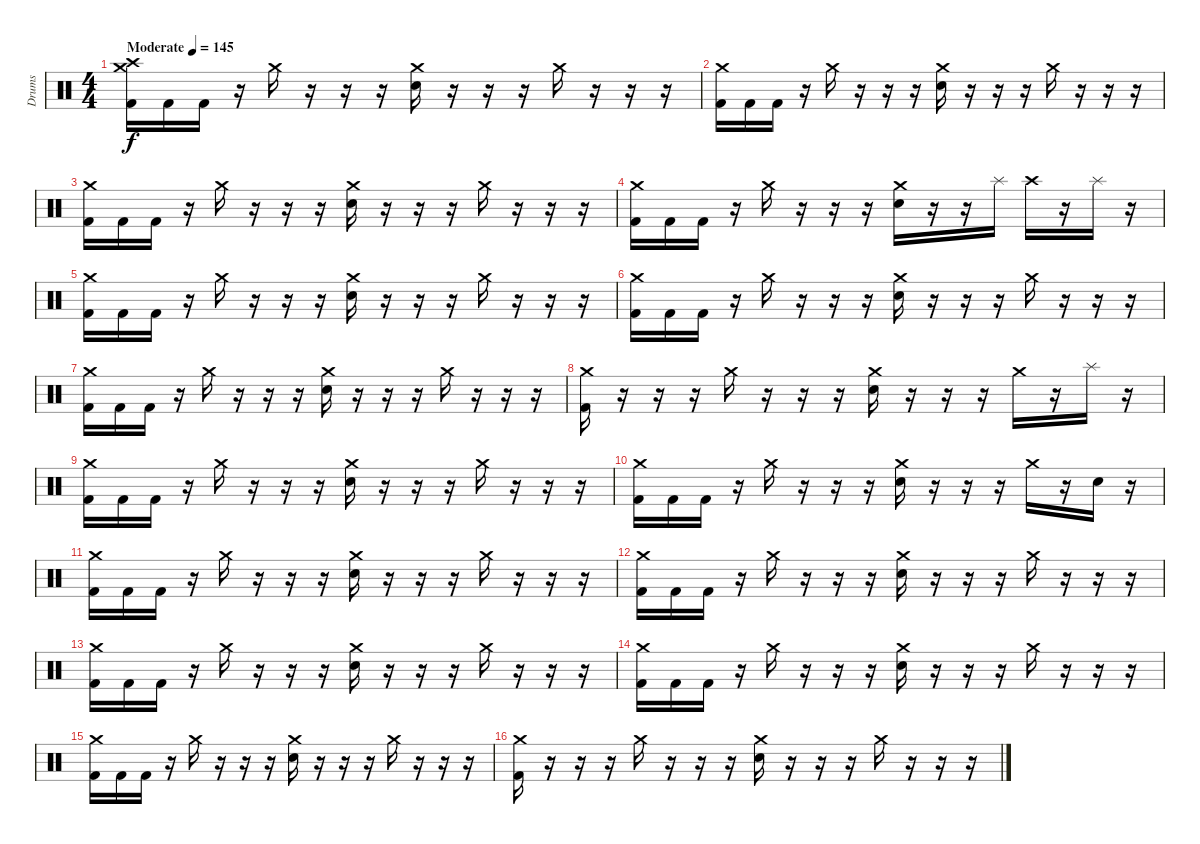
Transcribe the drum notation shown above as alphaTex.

\track ("Drums" "Drums") {instrument percussion}
\staff {score}
\articulation defaults
\ts (4 4)
\tempo (145 "Moderate")
\clef neutral
\ks c
("Crash medium (hit)" "Crash high (hit)" "Kick (hit) 2").16{dy f} "Kick (hit) 2".16 "Kick (hit) 2".16 r.16 "Crash medium (hit)".16 r.16 r.16 r.16 ("Crash medium (hit)" "Electric Snare (hit)").16 r.16 r.16 r.16 "Crash medium (hit)".16 r.16 r.16 r.16 |
("Crash medium (hit)" "Kick (hit) 2").16 "Kick (hit) 2".16 "Kick (hit) 2".16 r.16 "Crash medium (hit)".16 r.16 r.16 r.16 ("Crash medium (hit)" "Electric Snare (hit)").16 r.16 r.16 r.16 "Crash medium (hit)".16 r.16 r.16 r.16 |
("Crash medium (hit)" "Kick (hit) 2").16 "Kick (hit) 2".16 "Kick (hit) 2".16 r.16 "Crash medium (hit)".16 r.16 r.16 r.16 ("Crash medium (hit)" "Electric Snare (hit)").16 r.16 r.16 r.16 "Crash medium (hit)".16 r.16 r.16 r.16 |
("Crash medium (hit)" "Kick (hit) 2").16 "Kick (hit) 2".16 "Kick (hit) 2".16 r.16 "Crash medium (hit)".16 r.16 r.16 r.16 ("Crash medium (hit)" "Electric Snare (hit)").16 r.16 r.16 "Splash (hit)".16 "Crash high (hit)".16 r.16 "Splash (hit)".16 r.16 |
("Crash medium (hit)" "Kick (hit) 2").16 "Kick (hit) 2".16 "Kick (hit) 2".16 r.16 "Crash medium (hit)".16 r.16 r.16 r.16 ("Crash medium (hit)" "Electric Snare (hit)").16 r.16 r.16 r.16 "Crash medium (hit)".16 r.16 r.16 r.16 |
("Crash medium (hit)" "Kick (hit) 2").16 "Kick (hit) 2".16 "Kick (hit) 2".16 r.16 "Crash medium (hit)".16 r.16 r.16 r.16 ("Crash medium (hit)" "Electric Snare (hit)").16 r.16 r.16 r.16 "Crash medium (hit)".16 r.16 r.16 r.16 |
("Crash medium (hit)" "Kick (hit) 2").16 "Kick (hit) 2".16 "Kick (hit) 2".16 r.16 "Crash medium (hit)".16 r.16 r.16 r.16 ("Crash medium (hit)" "Electric Snare (hit)").16 r.16 r.16 r.16 "Crash medium (hit)".16 r.16 r.16 r.16 |
("Crash medium (hit)" "Kick (hit) 2").16 r.16 r.16 r.16 "Crash medium (hit)".16 r.16 r.16 r.16 ("Crash medium (hit)" "Electric Snare (hit)").16 r.16 r.16 r.16 "Crash medium (hit)".16 r.16 "Splash (hit)".16 r.16 |
("Crash medium (hit)" "Kick (hit) 2").16 "Kick (hit) 2".16 "Kick (hit) 2".16 r.16 "Crash medium (hit)".16 r.16 r.16 r.16 ("Crash medium (hit)" "Electric Snare (hit)").16 r.16 r.16 r.16 "Crash medium (hit)".16 r.16 r.16 r.16 |
("Crash medium (hit)" "Kick (hit) 2").16 "Kick (hit) 2".16 "Kick (hit) 2".16 r.16 "Crash medium (hit)".16 r.16 r.16 r.16 ("Crash medium (hit)" "Electric Snare (hit)").16 r.16 r.16 r.16 "Crash medium (hit)".16 r.16 "Electric Snare (hit)".16 r.16 |
("Crash medium (hit)" "Kick (hit) 2").16 "Kick (hit) 2".16 "Kick (hit) 2".16 r.16 "Crash medium (hit)".16 r.16 r.16 r.16 ("Crash medium (hit)" "Electric Snare (hit)").16 r.16 r.16 r.16 "Crash medium (hit)".16 r.16 r.16 r.16 |
("Crash medium (hit)" "Kick (hit) 2").16 "Kick (hit) 2".16 "Kick (hit) 2".16 r.16 "Crash medium (hit)".16 r.16 r.16 r.16 ("Crash medium (hit)" "Electric Snare (hit)").16 r.16 r.16 r.16 "Crash medium (hit)".16 r.16 r.16 r.16 |
("Crash medium (hit)" "Kick (hit) 2").16 "Kick (hit) 2".16 "Kick (hit) 2".16 r.16 "Crash medium (hit)".16 r.16 r.16 r.16 ("Crash medium (hit)" "Electric Snare (hit)").16 r.16 r.16 r.16 "Crash medium (hit)".16 r.16 r.16 r.16 |
("Crash medium (hit)" "Kick (hit) 2").16 "Kick (hit) 2".16 "Kick (hit) 2".16 r.16 "Crash medium (hit)".16 r.16 r.16 r.16 ("Crash medium (hit)" "Electric Snare (hit)").16 r.16 r.16 r.16 "Crash medium (hit)".16 r.16 r.16 r.16 |
("Crash medium (hit)" "Kick (hit) 2").16 "Kick (hit) 2".16 "Kick (hit) 2".16 r.16 "Crash medium (hit)".16 r.16 r.16 r.16 ("Crash medium (hit)" "Electric Snare (hit)").16 r.16 r.16 r.16 "Crash medium (hit)".16 r.16 r.16 r.16 |
("Crash medium (hit)" "Kick (hit) 2").16 r.16 r.16 r.16 "Crash medium (hit)".16 r.16 r.16 r.16 ("Crash medium (hit)" "Electric Snare (hit)").16 r.16 r.16 r.16 "Crash medium (hit)".16 r.16 r.16 r.16
